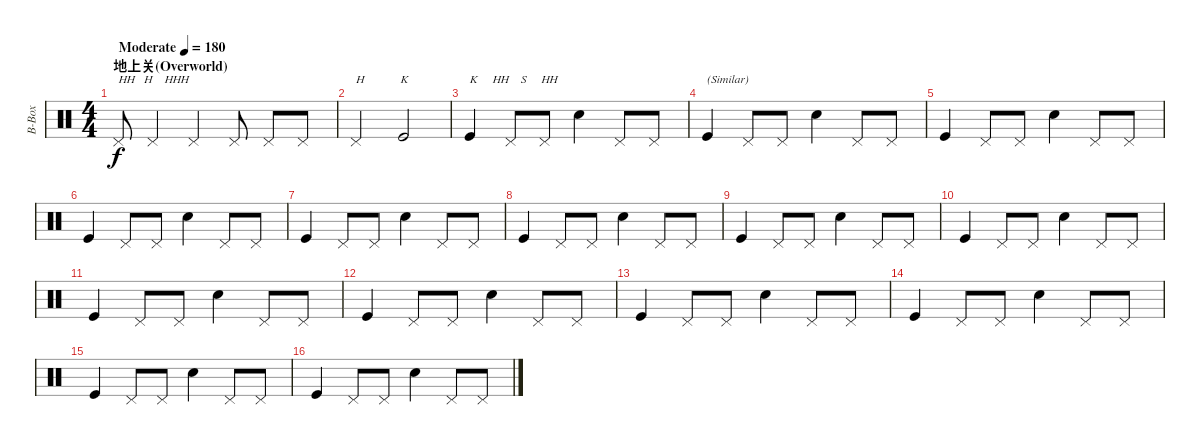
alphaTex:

\track ("B-Box" "B-Box") {instrument percussion}
\staff {score}
\articulation defaults
\ts (4 4)
\section ("" "地上关(Overworld)")
\tempo (180 "Moderate")
\clef neutral
\ks c "Pedal Hi-Hat (hit)".8{txt "HH   H    HHH" dy f} "Pedal Hi-Hat (hit)".4 "Pedal Hi-Hat (hit)".4 "Pedal Hi-Hat (hit)".8 "Pedal Hi-Hat (hit)".8 "Pedal Hi-Hat (hit)".8
|
"Pedal Hi-Hat (hit)".2{txt "H            K"} "Kick (hit)".2 |
"Kick (hit)".4{txt "K     HH    S     HH"} "Pedal Hi-Hat (hit)".8 "Pedal Hi-Hat (hit)".8 "Snare (hit) 2".4 "Pedal Hi-Hat (hit)".8 "Pedal Hi-Hat (hit)".8 |
"Kick (hit)".4{txt "(Similar)"} "Pedal Hi-Hat (hit)".8 "Pedal Hi-Hat (hit)".8 "Snare (hit) 2".4 "Pedal Hi-Hat (hit)".8 "Pedal Hi-Hat (hit)".8 |
"Kick (hit)".4 "Pedal Hi-Hat (hit)".8 "Pedal Hi-Hat (hit)".8 "Snare (hit) 2".4 "Pedal Hi-Hat (hit)".8 "Pedal Hi-Hat (hit)".8 |
"Kick (hit)".4 "Pedal Hi-Hat (hit)".8 "Pedal Hi-Hat (hit)".8 "Snare (hit) 2".4 "Pedal Hi-Hat (hit)".8 "Pedal Hi-Hat (hit)".8 |
"Kick (hit)".4 "Pedal Hi-Hat (hit)".8 "Pedal Hi-Hat (hit)".8 "Snare (hit) 2".4 "Pedal Hi-Hat (hit)".8 "Pedal Hi-Hat (hit)".8 |
"Kick (hit)".4 "Pedal Hi-Hat (hit)".8 "Pedal Hi-Hat (hit)".8 "Snare (hit) 2".4 "Pedal Hi-Hat (hit)".8 "Pedal Hi-Hat (hit)".8 |
"Kick (hit)".4 "Pedal Hi-Hat (hit)".8 "Pedal Hi-Hat (hit)".8 "Snare (hit) 2".4 "Pedal Hi-Hat (hit)".8 "Pedal Hi-Hat (hit)".8 |
"Kick (hit)".4 "Pedal Hi-Hat (hit)".8 "Pedal Hi-Hat (hit)".8 "Snare (hit) 2".4 "Pedal Hi-Hat (hit)".8 "Pedal Hi-Hat (hit)".8 |
"Kick (hit)".4 "Pedal Hi-Hat (hit)".8 "Pedal Hi-Hat (hit)".8 "Snare (hit) 2".4 "Pedal Hi-Hat (hit)".8 "Pedal Hi-Hat (hit)".8 |
"Kick (hit)".4 "Pedal Hi-Hat (hit)".8 "Pedal Hi-Hat (hit)".8 "Snare (hit) 2".4 "Pedal Hi-Hat (hit)".8 "Pedal Hi-Hat (hit)".8 |
"Kick (hit)".4 "Pedal Hi-Hat (hit)".8 "Pedal Hi-Hat (hit)".8 "Snare (hit) 2".4 "Pedal Hi-Hat (hit)".8 "Pedal Hi-Hat (hit)".8 |
"Kick (hit)".4 "Pedal Hi-Hat (hit)".8 "Pedal Hi-Hat (hit)".8 "Snare (hit) 2".4 "Pedal Hi-Hat (hit)".8 "Pedal Hi-Hat (hit)".8 |
"Kick (hit)".4 "Pedal Hi-Hat (hit)".8 "Pedal Hi-Hat (hit)".8 "Snare (hit) 2".4 "Pedal Hi-Hat (hit)".8 "Pedal Hi-Hat (hit)".8 |
"Kick (hit)".4 "Pedal Hi-Hat (hit)".8 "Pedal Hi-Hat (hit)".8 "Snare (hit) 2".4 "Pedal Hi-Hat (hit)".8 "Pedal Hi-Hat (hit)".8
